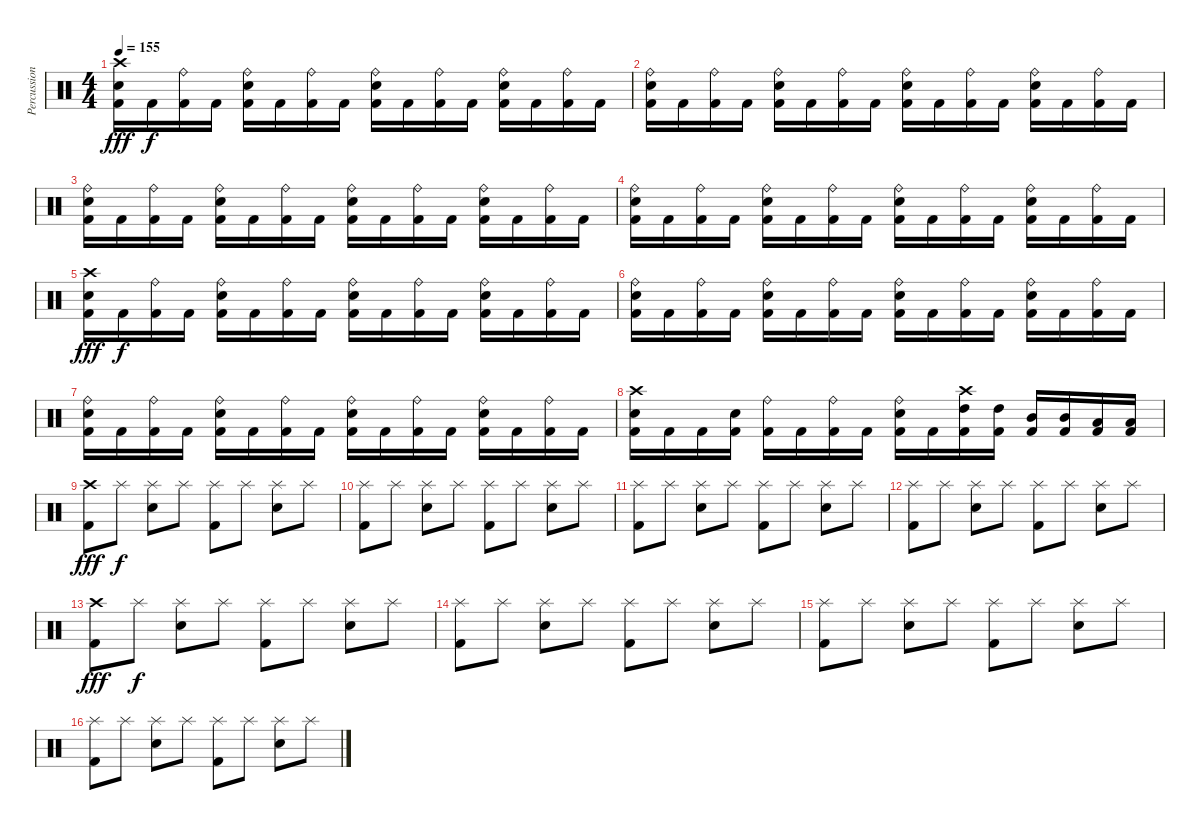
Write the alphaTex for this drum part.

\track ("Percussion" "Percussion") {instrument percussion}
\staff {score}
\articulation defaults
\ts (4 4)
\tempo 155
\clef neutral
\ks c
("Crash high (hit)" "Electric Snare (hit)" "Kick (hit) 2").16{dy fff} "Kick (hit) 2".16{dy f} ("Ride (bell)" "Kick (hit) 2").16 "Kick (hit) 2".16 ("Ride (bell)" "Electric Snare (hit)" "Kick (hit) 2").16 "Kick (hit) 2".16 ("Ride (bell)" "Kick (hit) 2").16 "Kick (hit) 2".16 ("Ride (bell)" "Electric Snare (hit)" "Kick (hit) 2").16 "Kick (hit) 2".16 ("Ride (bell)" "Kick (hit) 2").16 "Kick (hit) 2".16 ("Ride (bell)" "Electric Snare (hit)" "Kick (hit) 2").16 "Kick (hit) 2".16 ("Ride (bell)" "Kick (hit) 2").16 "Kick (hit) 2".16 |
("Ride (bell)" "Electric Snare (hit)" "Kick (hit) 2").16 "Kick (hit) 2".16 ("Ride (bell)" "Kick (hit) 2").16 "Kick (hit) 2".16 ("Ride (bell)" "Electric Snare (hit)" "Kick (hit) 2").16 "Kick (hit) 2".16 ("Ride (bell)" "Kick (hit) 2").16 "Kick (hit) 2".16 ("Ride (bell)" "Electric Snare (hit)" "Kick (hit) 2").16 "Kick (hit) 2".16 ("Ride (bell)" "Kick (hit) 2").16 "Kick (hit) 2".16 ("Ride (bell)" "Electric Snare (hit)" "Kick (hit) 2").16 "Kick (hit) 2".16 ("Ride (bell)" "Kick (hit) 2").16 "Kick (hit) 2".16 |
("Ride (bell)" "Electric Snare (hit)" "Kick (hit) 2").16 "Kick (hit) 2".16 ("Ride (bell)" "Kick (hit) 2").16 "Kick (hit) 2".16 ("Ride (bell)" "Electric Snare (hit)" "Kick (hit) 2").16 "Kick (hit) 2".16 ("Ride (bell)" "Kick (hit) 2").16 "Kick (hit) 2".16 ("Ride (bell)" "Electric Snare (hit)" "Kick (hit) 2").16 "Kick (hit) 2".16 ("Ride (bell)" "Kick (hit) 2").16 "Kick (hit) 2".16 ("Ride (bell)" "Electric Snare (hit)" "Kick (hit) 2").16 "Kick (hit) 2".16 ("Ride (bell)" "Kick (hit) 2").16 "Kick (hit) 2".16 |
("Ride (bell)" "Electric Snare (hit)" "Kick (hit) 2").16 "Kick (hit) 2".16 ("Ride (bell)" "Kick (hit) 2").16 "Kick (hit) 2".16 ("Ride (bell)" "Electric Snare (hit)" "Kick (hit) 2").16 "Kick (hit) 2".16 ("Ride (bell)" "Kick (hit) 2").16 "Kick (hit) 2".16 ("Ride (bell)" "Electric Snare (hit)" "Kick (hit) 2").16 "Kick (hit) 2".16 ("Ride (bell)" "Kick (hit) 2").16 "Kick (hit) 2".16 ("Ride (bell)" "Electric Snare (hit)" "Kick (hit) 2").16 "Kick (hit) 2".16 ("Ride (bell)" "Kick (hit) 2").16 "Kick (hit) 2".16 |
("Crash high (hit)" "Electric Snare (hit)" "Kick (hit) 2").16{dy fff} "Kick (hit) 2".16{dy f} ("Ride (bell)" "Kick (hit) 2").16 "Kick (hit) 2".16 ("Ride (bell)" "Electric Snare (hit)" "Kick (hit) 2").16 "Kick (hit) 2".16 ("Ride (bell)" "Kick (hit) 2").16 "Kick (hit) 2".16 ("Ride (bell)" "Electric Snare (hit)" "Kick (hit) 2").16 "Kick (hit) 2".16 ("Ride (bell)" "Kick (hit) 2").16 "Kick (hit) 2".16 ("Ride (bell)" "Electric Snare (hit)" "Kick (hit) 2").16 "Kick (hit) 2".16 ("Ride (bell)" "Kick (hit) 2").16 "Kick (hit) 2".16 |
("Ride (bell)" "Electric Snare (hit)" "Kick (hit) 2").16 "Kick (hit) 2".16 ("Ride (bell)" "Kick (hit) 2").16 "Kick (hit) 2".16 ("Ride (bell)" "Electric Snare (hit)" "Kick (hit) 2").16 "Kick (hit) 2".16 ("Ride (bell)" "Kick (hit) 2").16 "Kick (hit) 2".16 ("Ride (bell)" "Electric Snare (hit)" "Kick (hit) 2").16 "Kick (hit) 2".16 ("Ride (bell)" "Kick (hit) 2").16 "Kick (hit) 2".16 ("Ride (bell)" "Electric Snare (hit)" "Kick (hit) 2").16 "Kick (hit) 2".16 ("Ride (bell)" "Kick (hit) 2").16 "Kick (hit) 2".16 |
("Ride (bell)" "Electric Snare (hit)" "Kick (hit) 2").16 "Kick (hit) 2".16 ("Ride (bell)" "Kick (hit) 2").16 "Kick (hit) 2".16 ("Ride (bell)" "Electric Snare (hit)" "Kick (hit) 2").16 "Kick (hit) 2".16 ("Ride (bell)" "Kick (hit) 2").16 "Kick (hit) 2".16 ("Ride (bell)" "Electric Snare (hit)" "Kick (hit) 2").16 "Kick (hit) 2".16 ("Ride (bell)" "Kick (hit) 2").16 "Kick (hit) 2".16 ("Ride (bell)" "Electric Snare (hit)" "Kick (hit) 2").16 "Kick (hit) 2".16 ("Ride (bell)" "Kick (hit) 2").16 "Kick (hit) 2".16 |
("Crash high (hit)" "Electric Snare (hit)" "Kick (hit) 2").16 "Kick (hit) 2".16 "Kick (hit) 2".16 ("Electric Snare (hit)" "Kick (hit) 2").16 ("Ride (bell)" "Kick (hit) 2").16 "Kick (hit) 2".16 ("Ride (bell)" "Kick (hit) 2").16 "Kick (hit) 2".16 ("Ride (bell)" "Electric Snare (hit)" "Kick (hit) 2").16 "Kick (hit) 2".16 ("Crash high (hit)" "High Tom (hit)" "Kick (hit) 2").16 ("High Tom (hit)" "Kick (hit) 2").16 ("Mid Tom (hit)" "Kick (hit) 2").16 ("Mid Tom (hit)" "Kick (hit) 2").16 ("Low Tom (hit)" "Kick (hit) 2").16 ("Low Tom (hit)" "Kick (hit) 2").16 |
("Crash high (hit)" "Kick (hit) 2").8{dy fff} "Splash (hit)".8{dy f} ("Splash (hit)" "Electric Snare (hit)").8 "Splash (hit)".8 ("Splash (hit)" "Kick (hit) 2").8 "Splash (hit)".8 ("Splash (hit)" "Electric Snare (hit)").8 "Splash (hit)".8 |
("Splash (hit)" "Kick (hit) 2").8 "Splash (hit)".8 ("Splash (hit)" "Electric Snare (hit)").8 "Splash (hit)".8 ("Splash (hit)" "Kick (hit) 2").8 "Splash (hit)".8 ("Splash (hit)" "Electric Snare (hit)").8 "Splash (hit)".8 |
("Splash (hit)" "Kick (hit) 2").8 "Splash (hit)".8 ("Splash (hit)" "Electric Snare (hit)").8 "Splash (hit)".8 ("Splash (hit)" "Kick (hit) 2").8 "Splash (hit)".8 ("Splash (hit)" "Electric Snare (hit)").8 "Splash (hit)".8 |
("Splash (hit)" "Kick (hit) 2").8 "Splash (hit)".8 ("Splash (hit)" "Electric Snare (hit)").8 "Splash (hit)".8 ("Splash (hit)" "Kick (hit) 2").8 "Splash (hit)".8 ("Splash (hit)" "Electric Snare (hit)").8 "Splash (hit)".8 |
("Crash high (hit)" "Kick (hit) 2").8{dy fff} "Splash (hit)".8{dy f} ("Splash (hit)" "Electric Snare (hit)").8 "Splash (hit)".8 ("Splash (hit)" "Kick (hit) 2").8 "Splash (hit)".8 ("Splash (hit)" "Electric Snare (hit)").8 "Splash (hit)".8 |
("Splash (hit)" "Kick (hit) 2").8 "Splash (hit)".8 ("Splash (hit)" "Electric Snare (hit)").8 "Splash (hit)".8 ("Splash (hit)" "Kick (hit) 2").8 "Splash (hit)".8 ("Splash (hit)" "Electric Snare (hit)").8 "Splash (hit)".8 |
("Splash (hit)" "Kick (hit) 2").8 "Splash (hit)".8 ("Splash (hit)" "Electric Snare (hit)").8 "Splash (hit)".8 ("Splash (hit)" "Kick (hit) 2").8 "Splash (hit)".8 ("Splash (hit)" "Electric Snare (hit)").8 "Splash (hit)".8 |
("Splash (hit)" "Kick (hit) 2").8 "Splash (hit)".8 ("Splash (hit)" "Electric Snare (hit)").8 "Splash (hit)".8 ("Splash (hit)" "Kick (hit) 2").8 "Splash (hit)".8 ("Splash (hit)" "Electric Snare (hit)").8 "Splash (hit)".8
